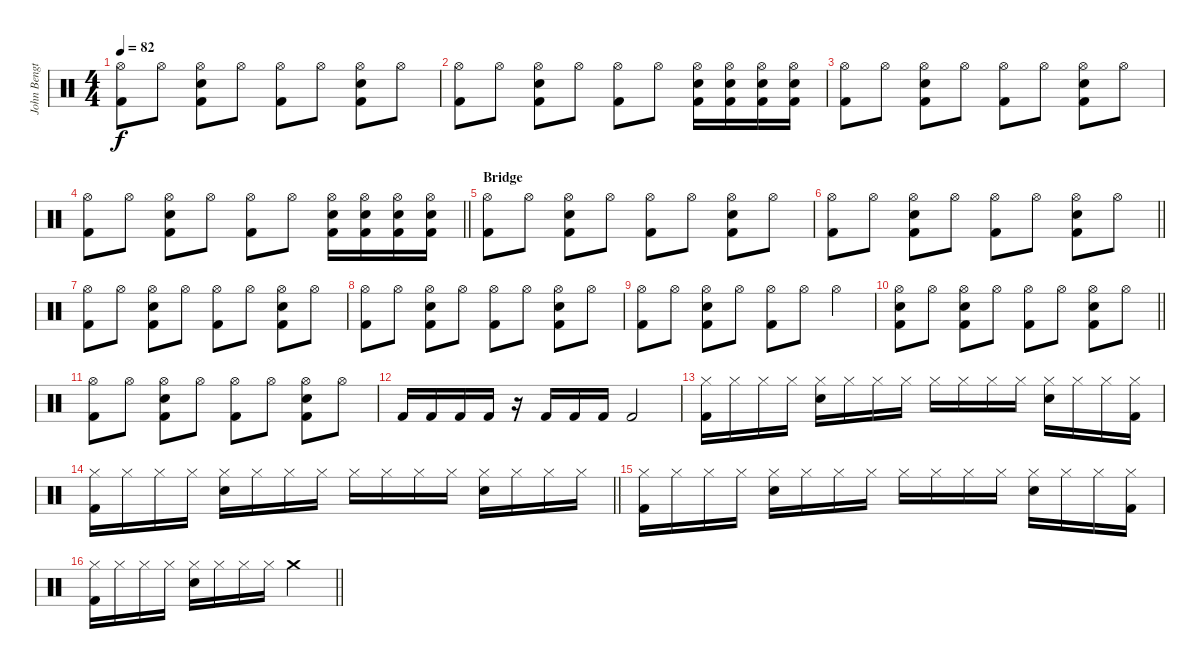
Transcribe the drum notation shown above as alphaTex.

\track ("John Bengtsson" "John Bengt") {instrument percussion}
\staff {score}
\articulation defaults
\ts (4 4)
\tempo 82
\clef neutral
\ks c
("Hi-Hat (open)" "Kick (hit) 2").8{dy f} "Hi-Hat (open)".8 ("Hi-Hat (open)" "Electric Snare (hit)" "Kick (hit) 2").8 "Hi-Hat (open)".8 ("Hi-Hat (open)" "Kick (hit) 2").8 "Hi-Hat (open)".8 ("Hi-Hat (open)" "Electric Snare (hit)" "Kick (hit) 2").8 "Hi-Hat (open)".8 |
("Hi-Hat (open)" "Kick (hit) 2").8 "Hi-Hat (open)".8 ("Hi-Hat (open)" "Electric Snare (hit)" "Kick (hit) 2").8 "Hi-Hat (open)".8 ("Hi-Hat (open)" "Kick (hit) 2").8 "Hi-Hat (open)".8 ("Hi-Hat (open)" "Electric Snare (hit)" "Kick (hit) 2").16 ("Hi-Hat (open)" "Electric Snare (hit)" "Kick (hit) 2").16 ("Hi-Hat (open)" "Electric Snare (hit)" "Kick (hit) 2").16 ("Hi-Hat (open)" "Electric Snare (hit)" "Kick (hit) 2").16 |
("Hi-Hat (open)" "Kick (hit) 2").8 "Hi-Hat (open)".8 ("Hi-Hat (open)" "Electric Snare (hit)" "Kick (hit) 2").8 "Hi-Hat (open)".8 ("Hi-Hat (open)" "Kick (hit) 2").8 "Hi-Hat (open)".8 ("Hi-Hat (open)" "Electric Snare (hit)" "Kick (hit) 2").8 "Hi-Hat (open)".8 |
\barLineRight lightlight
("Hi-Hat (open)" "Kick (hit) 2").8 "Hi-Hat (open)".8 ("Hi-Hat (open)" "Electric Snare (hit)" "Kick (hit) 2").8 "Hi-Hat (open)".8 ("Hi-Hat (open)" "Kick (hit) 2").8 "Hi-Hat (open)".8 ("Hi-Hat (open)" "Electric Snare (hit)" "Kick (hit) 2").16 ("Hi-Hat (open)" "Electric Snare (hit)" "Kick (hit) 2").16 ("Hi-Hat (open)" "Electric Snare (hit)" "Kick (hit) 2").16 ("Hi-Hat (open)" "Electric Snare (hit)" "Kick (hit) 2").16 |
\section ("" "Bridge")
("Hi-Hat (open)" "Kick (hit) 2").8 "Hi-Hat (open)".8 ("Hi-Hat (open)" "Electric Snare (hit)" "Kick (hit) 2").8 "Hi-Hat (open)".8 ("Hi-Hat (open)" "Kick (hit) 2").8 "Hi-Hat (open)".8 ("Hi-Hat (open)" "Electric Snare (hit)" "Kick (hit) 2").8 "Hi-Hat (open)".8 |
\barLineRight lightlight
("Hi-Hat (open)" "Kick (hit) 2").8 "Hi-Hat (open)".8 ("Hi-Hat (open)" "Electric Snare (hit)" "Kick (hit) 2").8 "Hi-Hat (open)".8 ("Hi-Hat (open)" "Kick (hit) 2").8 "Hi-Hat (open)".8 ("Hi-Hat (open)" "Electric Snare (hit)" "Kick (hit) 2").8 "Hi-Hat (open)".8 |
("Hi-Hat (open)" "Kick (hit) 2").8 "Hi-Hat (open)".8 ("Hi-Hat (open)" "Electric Snare (hit)" "Kick (hit) 2").8 "Hi-Hat (open)".8 ("Hi-Hat (open)" "Kick (hit) 2").8 "Hi-Hat (open)".8 ("Hi-Hat (open)" "Electric Snare (hit)" "Kick (hit) 2").8 "Hi-Hat (open)".8 |
("Hi-Hat (open)" "Kick (hit) 2").8 "Hi-Hat (open)".8 ("Hi-Hat (open)" "Electric Snare (hit)" "Kick (hit) 2").8 "Hi-Hat (open)".8 ("Hi-Hat (open)" "Kick (hit) 2").8 "Hi-Hat (open)".8 ("Hi-Hat (open)" "Electric Snare (hit)" "Kick (hit) 2").8 "Hi-Hat (open)".8 |
("Hi-Hat (open)" "Kick (hit) 2").8 "Hi-Hat (open)".8 ("Hi-Hat (open)" "Electric Snare (hit)" "Kick (hit) 2").8 "Hi-Hat (open)".8 ("Hi-Hat (open)" "Kick (hit) 2").8 "Hi-Hat (open)".8 "Hi-Hat (open)".4 |
\barLineRight lightlight
("Hi-Hat (open)" "Electric Snare (hit)" "Kick (hit) 2").8 "Hi-Hat (open)".8 ("Hi-Hat (open)" "Electric Snare (hit)" "Kick (hit) 2").8 "Hi-Hat (open)".8 ("Hi-Hat (open)" "Kick (hit) 2").8 "Hi-Hat (open)".8 ("Hi-Hat (open)" "Electric Snare (hit)" "Kick (hit) 2").8 "Hi-Hat (open)".8 |
("Hi-Hat (open)" "Kick (hit) 2").8 "Hi-Hat (open)".8 ("Hi-Hat (open)" "Electric Snare (hit)" "Kick (hit) 2").8 "Hi-Hat (open)".8 ("Hi-Hat (open)" "Kick (hit) 2").8 "Hi-Hat (open)".8 ("Hi-Hat (open)" "Electric Snare (hit)" "Kick (hit) 2").8 "Hi-Hat (open)".8 |
"Kick (hit) 2".16 "Kick (hit) 2".16 "Kick (hit) 2".16 "Kick (hit) 2".16 r.16 "Kick (hit) 2".16 "Kick (hit) 2".16 "Kick (hit) 2".16 "Kick (hit) 2".2 |
("Hi-Hat (closed)" "Kick (hit) 2").16 "Hi-Hat (closed)".16 "Hi-Hat (closed)".16 "Hi-Hat (closed)".16 ("Hi-Hat (closed)" "Electric Snare (hit)").16 "Hi-Hat (closed)".16 "Hi-Hat (closed)".16 "Hi-Hat (closed)".16 "Hi-Hat (closed)".16 "Hi-Hat (closed)".16 "Hi-Hat (closed)".16 "Hi-Hat (closed)".16 ("Hi-Hat (closed)" "Electric Snare (hit)").16 "Hi-Hat (closed)".16 "Hi-Hat (closed)".16 ("Hi-Hat (closed)" "Kick (hit) 2").16 |
\barLineRight lightlight
("Hi-Hat (closed)" "Kick (hit) 2").16 "Hi-Hat (closed)".16 "Hi-Hat (closed)".16 "Hi-Hat (closed)".16 ("Hi-Hat (closed)" "Electric Snare (hit)").16 "Hi-Hat (closed)".16 "Hi-Hat (closed)".16 "Hi-Hat (closed)".16 "Hi-Hat (closed)".16 "Hi-Hat (closed)".16 "Hi-Hat (closed)".16 "Hi-Hat (closed)".16 ("Hi-Hat (closed)" "Electric Snare (hit)").16 "Hi-Hat (closed)".16 "Hi-Hat (closed)".16 "Hi-Hat (closed)".16 |
("Hi-Hat (closed)" "Kick (hit) 2").16 "Hi-Hat (closed)".16 "Hi-Hat (closed)".16 "Hi-Hat (closed)".16 ("Hi-Hat (closed)" "Electric Snare (hit)").16 "Hi-Hat (closed)".16 "Hi-Hat (closed)".16 "Hi-Hat (closed)".16 "Hi-Hat (closed)".16 "Hi-Hat (closed)".16 "Hi-Hat (closed)".16 "Hi-Hat (closed)".16 ("Hi-Hat (closed)" "Electric Snare (hit)").16 "Hi-Hat (closed)".16 "Hi-Hat (closed)".16 ("Hi-Hat (closed)" "Kick (hit) 2").16 |
\barLineRight lightlight
("Hi-Hat (closed)" "Kick (hit) 2").16 "Hi-Hat (closed)".16 "Hi-Hat (closed)".16 "Hi-Hat (closed)".16 ("Hi-Hat (closed)" "Electric Snare (hit)").16 "Hi-Hat (closed)".16 "Hi-Hat (closed)".16 "Hi-Hat (closed)".16 "Crash medium (hit)".2
